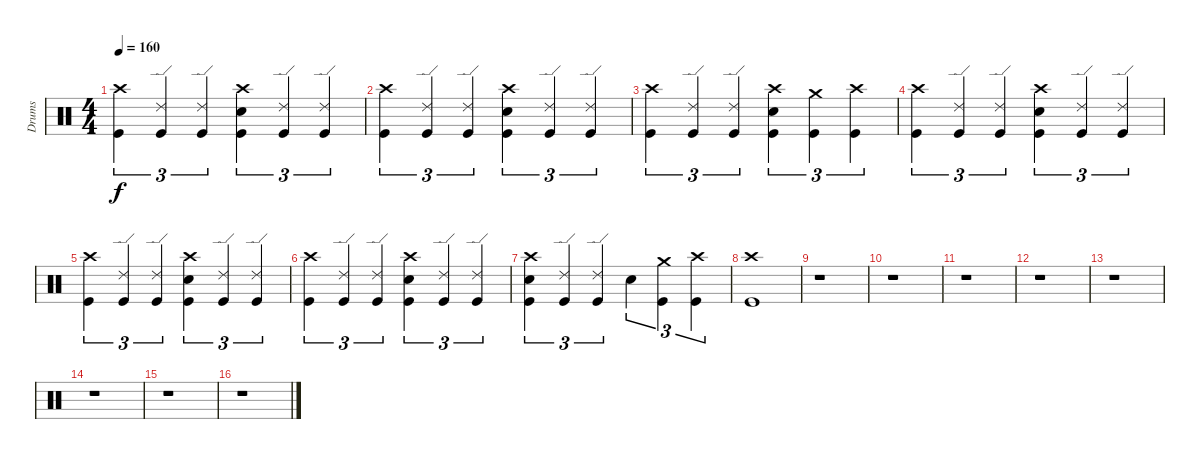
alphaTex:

\track ("Drums" "Drums") {instrument percussion}
\staff {score}
\articulation defaults
\ts (4 4)
\tempo 160
\clef neutral
\ks c
("Crash high (hit)" "Kick (hit)").4{tu (3 2) dy f} ("Ride (edge) 2" "Kick (hit)").4{tu (3 2)} ("Ride (edge) 2" "Kick (hit)").4{tu (3 2)} ("Electric Snare (hit)" "Crash high (hit)" "Kick (hit)").4{tu (3 2)} ("Ride (edge) 2" "Kick (hit)").4{tu (3 2)} ("Ride (edge) 2" "Kick (hit)").4{tu (3 2)} |
("Crash high (hit)" "Kick (hit)").4{tu (3 2)} ("Ride (edge) 2" "Kick (hit)").4{tu (3 2)} ("Ride (edge) 2" "Kick (hit)").4{tu (3 2)} ("Electric Snare (hit)" "Crash high (hit)" "Kick (hit)").4{tu (3 2)} ("Ride (edge) 2" "Kick (hit)").4{tu (3 2)} ("Ride (edge) 2" "Kick (hit)").4{tu (3 2)} |
("Crash high (hit)" "Kick (hit)").4{tu (3 2)} ("Ride (edge) 2" "Kick (hit)").4{tu (3 2)} ("Ride (edge) 2" "Kick (hit)").4{tu (3 2)} ("Electric Snare (hit)" "Crash high (hit)" "Kick (hit)").4{tu (3 2)} ("Crash medium (hit)" "Kick (hit)").4{tu (3 2)} ("Crash high (hit)" "Kick (hit)").4{tu (3 2)} |
("Crash high (hit)" "Kick (hit)").4{tu (3 2)} ("Ride (edge) 2" "Kick (hit)").4{tu (3 2)} ("Ride (edge) 2" "Kick (hit)").4{tu (3 2)} ("Electric Snare (hit)" "Crash high (hit)" "Kick (hit)").4{tu (3 2)} ("Ride (edge) 2" "Kick (hit)").4{tu (3 2)} ("Ride (edge) 2" "Kick (hit)").4{tu (3 2)} |
("Crash high (hit)" "Kick (hit)").4{tu (3 2)} ("Ride (edge) 2" "Kick (hit)").4{tu (3 2)} ("Ride (edge) 2" "Kick (hit)").4{tu (3 2)} ("Electric Snare (hit)" "Crash high (hit)" "Kick (hit)").4{tu (3 2)} ("Ride (edge) 2" "Kick (hit)").4{tu (3 2)} ("Ride (edge) 2" "Kick (hit)").4{tu (3 2)} |
("Crash high (hit)" "Kick (hit)").4{tu (3 2)} ("Ride (edge) 2" "Kick (hit)").4{tu (3 2)} ("Ride (edge) 2" "Kick (hit)").4{tu (3 2)} ("Electric Snare (hit)" "Crash high (hit)" "Kick (hit)").4{tu (3 2)} ("Ride (edge) 2" "Kick (hit)").4{tu (3 2)} ("Ride (edge) 2" "Kick (hit)").4{tu (3 2)} |
("Electric Snare (hit)" "Crash high (hit)" "Kick (hit)").4{tu (3 2)} ("Ride (edge) 2" "Kick (hit)").4{tu (3 2)} ("Ride (edge) 2" "Kick (hit)").4{tu (3 2)} "Electric Snare (hit)".4{tu (3 2)} ("Crash medium (hit)" "Kick (hit)").4{tu (3 2)} ("Crash high (hit)" "Kick (hit)").4{tu (3 2)} |
("Crash high (hit)" "Kick (hit)").1 |
r.1 |
r.1 |
r.1 |
r.1 |
r.1 |
r.1 |
r.1 |
r.1
